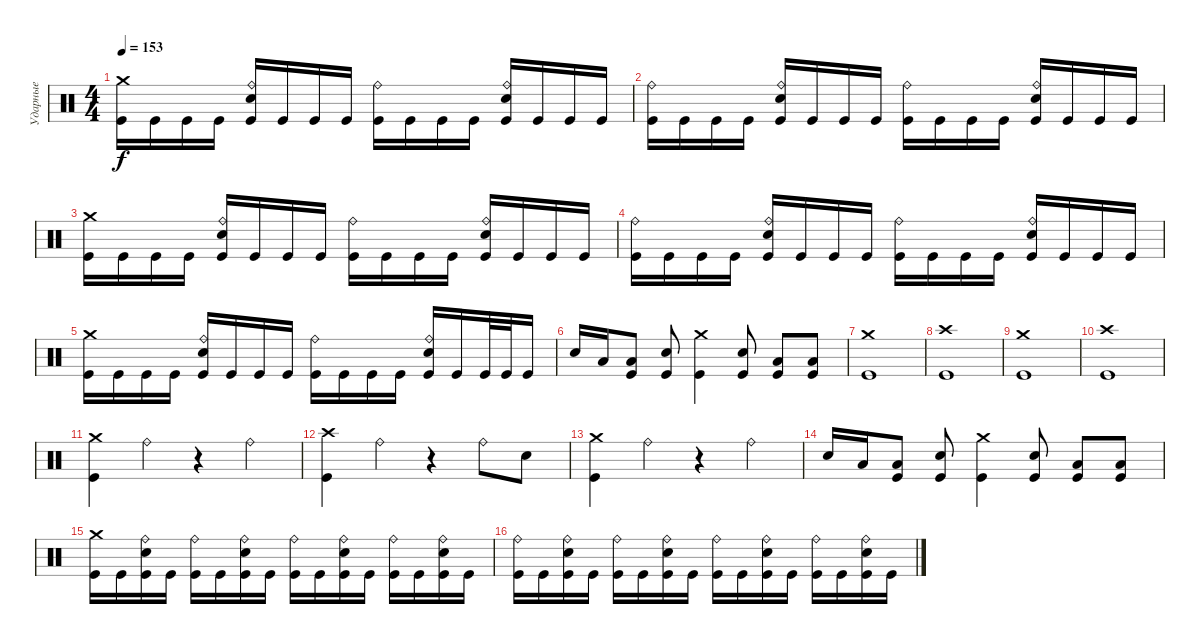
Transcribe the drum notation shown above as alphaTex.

\track ("Ударные" "Ударные") {instrument percussion}
\staff {score}
\articulation defaults
\ts (4 4)
\tempo 153
\clef neutral
\ks c
("Crash medium (hit)" "Kick (hit)").16{dy f} "Kick (hit)".16 "Kick (hit)".16 "Kick (hit)".16 ("Ride (bell)" "Electric Snare (hit)" "Kick (hit)").16 "Kick (hit)".16 "Kick (hit)".16 "Kick (hit)".16 ("Ride (bell)" "Kick (hit)").16 "Kick (hit)".16 "Kick (hit)".16 "Kick (hit)".16 ("Ride (bell)" "Electric Snare (hit)" "Kick (hit)").16 "Kick (hit)".16 "Kick (hit)".16 "Kick (hit)".16 |
("Ride (bell)" "Kick (hit)").16 "Kick (hit)".16 "Kick (hit)".16 "Kick (hit)".16 ("Ride (bell)" "Electric Snare (hit)" "Kick (hit)").16 "Kick (hit)".16 "Kick (hit)".16 "Kick (hit)".16 ("Ride (bell)" "Kick (hit)").16 "Kick (hit)".16 "Kick (hit)".16 "Kick (hit)".16 ("Ride (bell)" "Electric Snare (hit)" "Kick (hit)").16 "Kick (hit)".16 "Kick (hit)".16 "Kick (hit)".16 |
("Crash medium (hit)" "Kick (hit)").16 "Kick (hit)".16 "Kick (hit)".16 "Kick (hit)".16 ("Ride (bell)" "Electric Snare (hit)" "Kick (hit)").16 "Kick (hit)".16 "Kick (hit)".16 "Kick (hit)".16 ("Ride (bell)" "Kick (hit)").16 "Kick (hit)".16 "Kick (hit)".16 "Kick (hit)".16 ("Ride (bell)" "Electric Snare (hit)" "Kick (hit)").16 "Kick (hit)".16 "Kick (hit)".16 "Kick (hit)".16 |
("Ride (bell)" "Kick (hit)").16 "Kick (hit)".16 "Kick (hit)".16 "Kick (hit)".16 ("Ride (bell)" "Electric Snare (hit)" "Kick (hit)").16 "Kick (hit)".16 "Kick (hit)".16 "Kick (hit)".16 ("Ride (bell)" "Kick (hit)").16 "Kick (hit)".16 "Kick (hit)".16 "Kick (hit)".16 ("Ride (bell)" "Electric Snare (hit)" "Kick (hit)").16 "Kick (hit)".16 "Kick (hit)".16 "Kick (hit)".16 |
("Crash medium (hit)" "Kick (hit)").16 "Kick (hit)".16 "Kick (hit)".16 "Kick (hit)".16 ("Ride (bell)" "Electric Snare (hit)" "Kick (hit)").16 "Kick (hit)".16 "Kick (hit)".16 "Kick (hit)".16 ("Ride (bell)" "Kick (hit)").16 "Kick (hit)".16 "Kick (hit)".16 "Kick (hit)".16 ("Ride (bell)" "Electric Snare (hit)" "Kick (hit)").16 "Kick (hit)".16 "Kick (hit)".32 "Kick (hit)".32 "Kick (hit)".16 |
"Electric Snare (hit)".16 "Low Tom (hit)".16 ("Low Tom (hit)" "Kick (hit)").8 ("Electric Snare (hit)" "Kick (hit)").8 ("Crash medium (hit)" "Kick (hit)").4 ("Electric Snare (hit)" "Kick (hit)").8 ("Low Tom (hit)" "Kick (hit)").8 ("Low Tom (hit)" "Kick (hit)").8 |
("Crash medium (hit)" "Kick (hit)").1 |
("Crash high (hit)" "Kick (hit)").1 |
("Crash medium (hit)" "Kick (hit)").1 |
("Crash high (hit)" "Kick (hit)").1 |
("Crash medium (hit)" "Kick (hit)").4 "Ride (bell)".4 r.4 "Ride (bell)".4 |
("Crash high (hit)" "Kick (hit)").4 "Ride (bell)".4 r.4 "Ride (bell)".8 "Electric Snare (hit)".8 |
("Crash medium (hit)" "Kick (hit)").4 "Ride (bell)".4 r.4 "Ride (bell)".4 |
"Electric Snare (hit)".16 "Low Tom (hit)".16 ("Low Tom (hit)" "Kick (hit)").8 ("Electric Snare (hit)" "Kick (hit)").8 ("Crash medium (hit)" "Kick (hit)").4 ("Electric Snare (hit)" "Kick (hit)").8 ("Low Tom (hit)" "Kick (hit)").8 ("Low Tom (hit)" "Kick (hit)").8 |
("Crash medium (hit)" "Kick (hit)").16 "Kick (hit)".16 ("Ride (bell)" "Electric Snare (hit)" "Kick (hit)").16 "Kick (hit)".16 ("Ride (bell)" "Kick (hit)").16 "Kick (hit)".16 ("Ride (bell)" "Electric Snare (hit)" "Kick (hit)").16 "Kick (hit)".16 ("Ride (bell)" "Kick (hit)").16 "Kick (hit)".16 ("Ride (bell)" "Electric Snare (hit)" "Kick (hit)").16 "Kick (hit)".16 ("Ride (bell)" "Kick (hit)").16 "Kick (hit)".16 ("Ride (bell)" "Electric Snare (hit)" "Kick (hit)").16 "Kick (hit)".16 |
("Ride (bell)" "Kick (hit)").16 "Kick (hit)".16 ("Ride (bell)" "Electric Snare (hit)" "Kick (hit)").16 "Kick (hit)".16 ("Ride (bell)" "Kick (hit)").16 "Kick (hit)".16 ("Ride (bell)" "Electric Snare (hit)" "Kick (hit)").16 "Kick (hit)".16 ("Ride (bell)" "Kick (hit)").16 "Kick (hit)".16 ("Ride (bell)" "Electric Snare (hit)" "Kick (hit)").16 "Kick (hit)".16 ("Ride (bell)" "Kick (hit)").16 "Kick (hit)".16 ("Ride (bell)" "Electric Snare (hit)" "Kick (hit)").16 "Kick (hit)".16
